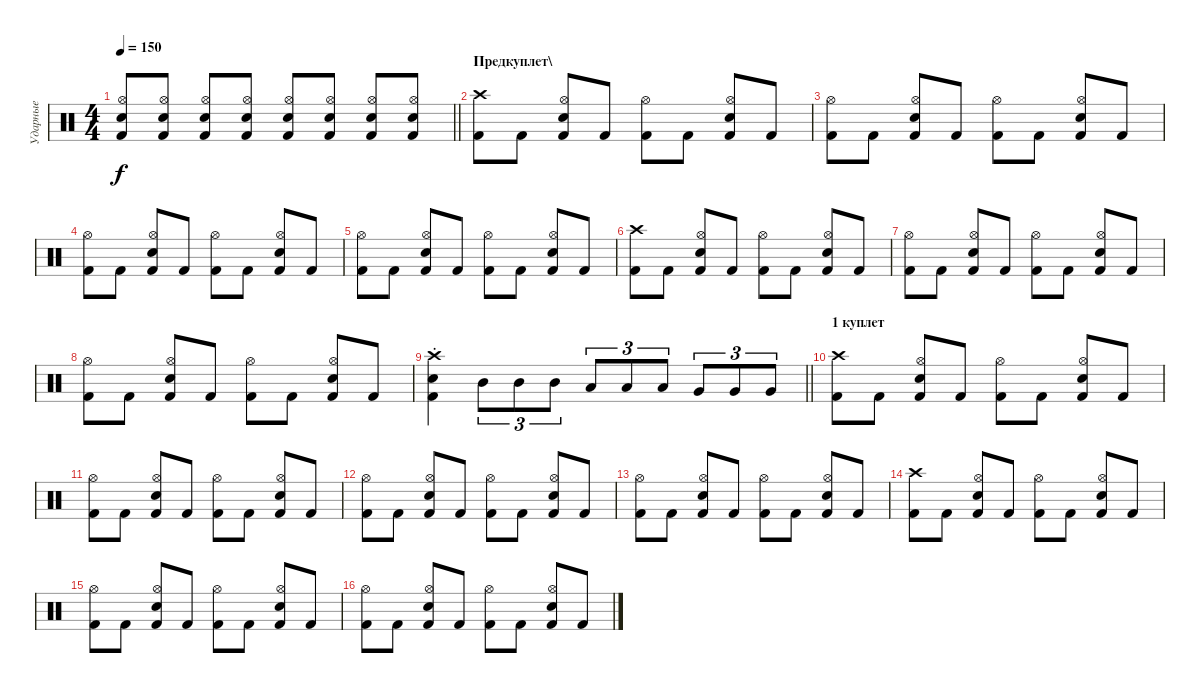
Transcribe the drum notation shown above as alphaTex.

\track ("Ударные" "Ударные") {instrument percussion}
\staff {score}
\articulation defaults
\ts (4 4)
\tempo 150
\clef neutral
\barLineRight lightlight
\ks c
("Snare (hit) 2" "Hi-Hat (open)" "Kick (hit) 2").8{dy f} ("Snare (hit) 2" "Hi-Hat (open)" "Kick (hit) 2").8 ("Snare (hit) 2" "Hi-Hat (open)" "Kick (hit) 2").8 ("Snare (hit) 2" "Hi-Hat (open)" "Kick (hit) 2").8 ("Snare (hit) 2" "Hi-Hat (open)" "Kick (hit) 2").8 ("Snare (hit) 2" "Hi-Hat (open)" "Kick (hit) 2").8 ("Snare (hit) 2" "Hi-Hat (open)" "Kick (hit) 2").8 ("Snare (hit) 2" "Hi-Hat (open)" "Kick (hit) 2").8 |
\section ("" "Предкуплет\\")
("Kick (hit) 2" "Crash high (hit)").8 "Kick (hit) 2".8 ("Snare (hit) 2" "Kick (hit) 2" "Hi-Hat (open)").8 "Kick (hit) 2".8 ("Kick (hit) 2" "Hi-Hat (open)").8 "Kick (hit) 2".8 ("Snare (hit) 2" "Kick (hit) 2" "Hi-Hat (open)").8 "Kick (hit) 2".8 |
("Kick (hit) 2" "Hi-Hat (open)").8 "Kick (hit) 2".8 ("Snare (hit) 2" "Kick (hit) 2" "Hi-Hat (open)").8 "Kick (hit) 2".8 ("Kick (hit) 2" "Hi-Hat (open)").8 "Kick (hit) 2".8 ("Snare (hit) 2" "Kick (hit) 2" "Hi-Hat (open)").8 "Kick (hit) 2".8 |
("Kick (hit) 2" "Hi-Hat (open)").8 "Kick (hit) 2".8 ("Snare (hit) 2" "Kick (hit) 2" "Hi-Hat (open)").8 "Kick (hit) 2".8 ("Kick (hit) 2" "Hi-Hat (open)").8 "Kick (hit) 2".8 ("Snare (hit) 2" "Kick (hit) 2" "Hi-Hat (open)").8 "Kick (hit) 2".8 |
("Kick (hit) 2" "Hi-Hat (open)").8 "Kick (hit) 2".8 ("Snare (hit) 2" "Kick (hit) 2" "Hi-Hat (open)").8 "Kick (hit) 2".8 ("Kick (hit) 2" "Hi-Hat (open)").8 "Kick (hit) 2".8 ("Snare (hit) 2" "Kick (hit) 2" "Hi-Hat (open)").8 "Kick (hit) 2".8 |
("Kick (hit) 2" "Crash high (hit)").8 "Kick (hit) 2".8 ("Snare (hit) 2" "Kick (hit) 2" "Hi-Hat (open)").8 "Kick (hit) 2".8 ("Kick (hit) 2" "Hi-Hat (open)").8 "Kick (hit) 2".8 ("Snare (hit) 2" "Kick (hit) 2" "Hi-Hat (open)").8 "Kick (hit) 2".8 |
("Kick (hit) 2" "Hi-Hat (open)").8 "Kick (hit) 2".8 ("Snare (hit) 2" "Kick (hit) 2" "Hi-Hat (open)").8 "Kick (hit) 2".8 ("Kick (hit) 2" "Hi-Hat (open)").8 "Kick (hit) 2".8 ("Snare (hit) 2" "Kick (hit) 2" "Hi-Hat (open)").8 "Kick (hit) 2".8 |
("Kick (hit) 2" "Hi-Hat (open)").8 "Kick (hit) 2".8 ("Snare (hit) 2" "Kick (hit) 2" "Hi-Hat (open)").8 "Kick (hit) 2".8 ("Kick (hit) 2" "Hi-Hat (open)").8 "Kick (hit) 2".8 ("Snare (hit) 2" "Kick (hit) 2" "Hi-Hat (open)").8 "Kick (hit) 2".8 |
\barLineRight lightlight
("Kick (hit) 2"{st} "Snare (hit) 2"{st} "Crash high (hit)"{st}).4 "Mid Tom (hit)".8{tu (3 2)} "Mid Tom (hit)".8{tu (3 2)} "Mid Tom (hit)".8{tu (3 2)} "Low Tom (hit)".8{tu (3 2)} "Low Tom (hit)".8{tu (3 2)} "Low Tom (hit)".8{tu (3 2)} "Very Low Tom (hit)".8{tu (3 2)} "Very Low Tom (hit)".8{tu (3 2)} "Very Low Tom (hit)".8{tu (3 2)} |
\section ("" "1 куплет")
("Kick (hit) 2" "Crash high (hit)").8 "Kick (hit) 2".8 ("Snare (hit) 2" "Kick (hit) 2" "Hi-Hat (open)").8 "Kick (hit) 2".8 ("Kick (hit) 2" "Hi-Hat (open)").8 "Kick (hit) 2".8 ("Snare (hit) 2" "Kick (hit) 2" "Hi-Hat (open)").8 "Kick (hit) 2".8 |
("Kick (hit) 2" "Hi-Hat (open)").8 "Kick (hit) 2".8 ("Snare (hit) 2" "Kick (hit) 2" "Hi-Hat (open)").8 "Kick (hit) 2".8 ("Kick (hit) 2" "Hi-Hat (open)").8 "Kick (hit) 2".8 ("Snare (hit) 2" "Kick (hit) 2" "Hi-Hat (open)").8 "Kick (hit) 2".8 |
("Kick (hit) 2" "Hi-Hat (open)").8 "Kick (hit) 2".8 ("Snare (hit) 2" "Kick (hit) 2" "Hi-Hat (open)").8 "Kick (hit) 2".8 ("Kick (hit) 2" "Hi-Hat (open)").8 "Kick (hit) 2".8 ("Snare (hit) 2" "Kick (hit) 2" "Hi-Hat (open)").8 "Kick (hit) 2".8 |
("Kick (hit) 2" "Hi-Hat (open)").8 "Kick (hit) 2".8 ("Snare (hit) 2" "Kick (hit) 2" "Hi-Hat (open)").8 "Kick (hit) 2".8 ("Kick (hit) 2" "Hi-Hat (open)").8 "Kick (hit) 2".8 ("Snare (hit) 2" "Kick (hit) 2" "Hi-Hat (open)").8 "Kick (hit) 2".8 |
("Kick (hit) 2" "Crash high (hit)").8 "Kick (hit) 2".8 ("Snare (hit) 2" "Kick (hit) 2" "Hi-Hat (open)").8 "Kick (hit) 2".8 ("Kick (hit) 2" "Hi-Hat (open)").8 "Kick (hit) 2".8 ("Snare (hit) 2" "Kick (hit) 2" "Hi-Hat (open)").8 "Kick (hit) 2".8 |
("Kick (hit) 2" "Hi-Hat (open)").8 "Kick (hit) 2".8 ("Snare (hit) 2" "Kick (hit) 2" "Hi-Hat (open)").8 "Kick (hit) 2".8 ("Kick (hit) 2" "Hi-Hat (open)").8 "Kick (hit) 2".8 ("Snare (hit) 2" "Kick (hit) 2" "Hi-Hat (open)").8 "Kick (hit) 2".8 |
("Kick (hit) 2" "Hi-Hat (open)").8 "Kick (hit) 2".8 ("Snare (hit) 2" "Kick (hit) 2" "Hi-Hat (open)").8 "Kick (hit) 2".8 ("Kick (hit) 2" "Hi-Hat (open)").8 "Kick (hit) 2".8 ("Snare (hit) 2" "Kick (hit) 2" "Hi-Hat (open)").8 "Kick (hit) 2".8
